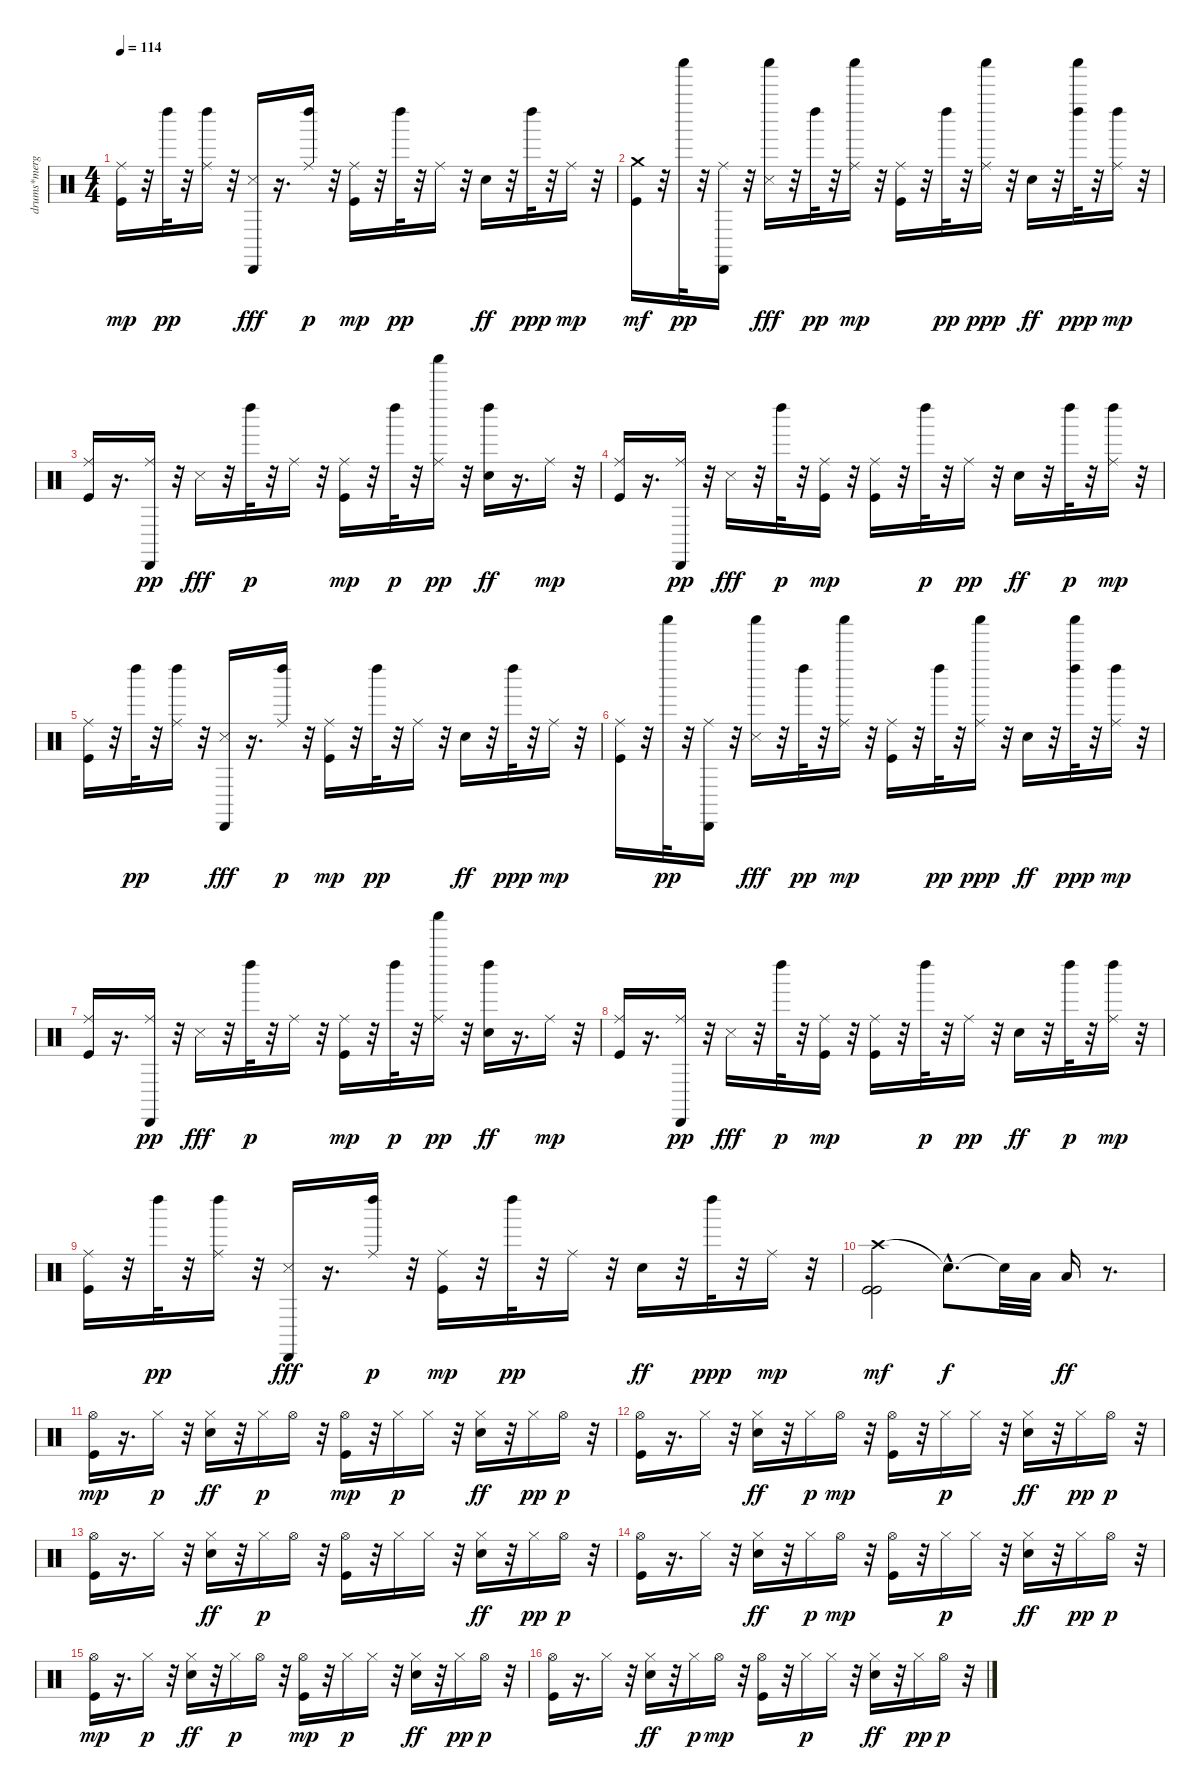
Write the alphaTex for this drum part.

\track ("drums*merged" "drums*merg") {instrument percussion}
\staff {score}
\articulation defaults
\ts (4 4)
\tempo 114
\clef neutral
\ks c
("Kick (hit)" "Ride (middle)").16{dy mp} r.32 "Left Maraca (hit)".32{dy pp} r.32 ("Ride (middle)" "Left Maraca (hit)").16 r.32 ("Cabasa (hit)" "Snare (side stick) 3").16{dy fff} r.16{d} ("Left Maraca (hit)" "Ride (middle)").16{dy p} r.32 ("Ride (middle)" "Kick (hit)").16{dy mp} r.32 "Left Maraca (hit)".32{dy pp} r.32 "Ride (middle)".16 r.32 "Snare (hit) 2".16{dy ff} r.32 "Left Maraca (hit)".32{dy ppp} r.32 "Ride (middle)".16{dy mp} r.32 |
("Crash medium (hit)" "Kick (hit)").16{dy mf} r.32 "Shaker (hit)".32{dy pp} r.32 ("Ride (middle)" "Cabasa (hit)").16 r.32 ("Shaker (hit)" "Snare (side stick) 3").16{dy fff} r.32 "Left Maraca (hit)".32{dy pp} r.32 ("Shaker (hit)" "Ride (middle)").16{dy mp} r.32 ("Ride (middle)" "Kick (hit)").16 r.32 "Left Maraca (hit)".32{dy pp} r.32 ("Ride (middle)" "Shaker (hit)").16{dy ppp} r.32 "Snare (hit) 2".16{dy ff} r.32 ("Left Maraca (hit)" "Shaker (hit)").32{dy ppp} r.32 ("Left Maraca (hit)" "Ride (middle)").16{dy mp} r.32 |
("Ride (middle)" "Kick (hit)").16 r.16{d} ("Ride (middle)" "Cabasa (hit)").16{dy pp} r.32 "Snare (side stick) 3".16{dy fff} r.32 "Left Maraca (hit)".32{dy p} r.32 "Ride (middle)".16 r.32 ("Ride (middle)" "Kick (hit)").16{dy mp} r.32 "Left Maraca (hit)".32{dy p} r.32 ("Ride (middle)" "Shaker (hit)").16{dy pp} r.32 ("Left Maraca (hit)" "Snare (hit) 2").16{dy ff} r.16{d} "Ride (middle)".16{dy mp} r.32 |
("Kick (hit)" "Ride (middle)").16 r.16{d} ("Ride (middle)" "Cabasa (hit)").16{dy pp} r.32 "Snare (side stick) 3".16{dy fff} r.32 "Left Maraca (hit)".32{dy p} r.32 ("Ride (middle)" "Kick (hit)").16{dy mp} r.32 ("Ride (middle)" "Kick (hit)").16 r.32 "Left Maraca (hit)".32{dy p} r.32 "Ride (middle)".16{dy pp} r.32 "Snare (hit) 2".16{dy ff} r.32 "Left Maraca (hit)".32{dy p} r.32 ("Left Maraca (hit)" "Ride (middle)").16{dy mp} r.32 |
("Kick (hit)" "Ride (middle)").16 r.32 "Left Maraca (hit)".32{dy pp} r.32 ("Ride (middle)" "Left Maraca (hit)").16 r.32 ("Cabasa (hit)" "Snare (side stick) 3").16{dy fff} r.16{d} ("Left Maraca (hit)" "Ride (middle)").16{dy p} r.32 ("Ride (middle)" "Kick (hit)").16{dy mp} r.32 "Left Maraca (hit)".32{dy pp} r.32 "Ride (middle)".16 r.32 "Snare (hit) 2".16{dy ff} r.32 "Left Maraca (hit)".32{dy ppp} r.32 "Ride (middle)".16{dy mp} r.32 |
("Ride (middle)" "Kick (hit)").16 r.32 "Shaker (hit)".32{dy pp} r.32 ("Ride (middle)" "Cabasa (hit)").16 r.32 ("Shaker (hit)" "Snare (side stick) 3").16{dy fff} r.32 "Left Maraca (hit)".32{dy pp} r.32 ("Shaker (hit)" "Ride (middle)").16{dy mp} r.32 ("Ride (middle)" "Kick (hit)").16 r.32 "Left Maraca (hit)".32{dy pp} r.32 ("Ride (middle)" "Shaker (hit)").16{dy ppp} r.32 "Snare (hit) 2".16{dy ff} r.32 ("Left Maraca (hit)" "Shaker (hit)").32{dy ppp} r.32 ("Left Maraca (hit)" "Ride (middle)").16{dy mp} r.32 |
("Ride (middle)" "Kick (hit)").16 r.16{d} ("Ride (middle)" "Cabasa (hit)").16{dy pp} r.32 "Snare (side stick) 3".16{dy fff} r.32 "Left Maraca (hit)".32{dy p} r.32 "Ride (middle)".16 r.32 ("Ride (middle)" "Kick (hit)").16{dy mp} r.32 "Left Maraca (hit)".32{dy p} r.32 ("Ride (middle)" "Shaker (hit)").16{dy pp} r.32 ("Left Maraca (hit)" "Snare (hit) 2").16{dy ff} r.16{d} "Ride (middle)".16{dy mp} r.32 |
("Kick (hit)" "Ride (middle)").16 r.16{d} ("Ride (middle)" "Cabasa (hit)").16{dy pp} r.32 "Snare (side stick) 3".16{dy fff} r.32 "Left Maraca (hit)".32{dy p} r.32 ("Ride (middle)" "Kick (hit)").16{dy mp} r.32 ("Ride (middle)" "Kick (hit)").16 r.32 "Left Maraca (hit)".32{dy p} r.32 "Ride (middle)".16{dy pp} r.32 "Snare (hit) 2".16{dy ff} r.32 "Left Maraca (hit)".32{dy p} r.32 ("Left Maraca (hit)" "Ride (middle)").16{dy mp} r.32 |
("Kick (hit)" "Ride (middle)").16 r.32 "Left Maraca (hit)".32{dy pp} r.32 ("Ride (middle)" "Left Maraca (hit)").16 r.32 ("Cabasa (hit)" "Snare (side stick) 3").16{dy fff} r.16{d} ("Left Maraca (hit)" "Ride (middle)").16{dy p} r.32 ("Ride (middle)" "Kick (hit)").16{dy mp} r.32 "Left Maraca (hit)".32{dy pp} r.32 "Ride (middle)".16 r.32 "Snare (hit) 2".16{dy ff} r.32 "Left Maraca (hit)".32{dy ppp} r.32 "Ride (middle)".16{dy mp} r.32 |
("Crash high (hit)" "Kick (hit)" "Kick (hit)").2{dy mf} "Snare (hit)"{hac t}.8{d dy f} "Snare (hit)"{t}.32 "Low Floor Tom (hit)".32 "Low Floor Tom (hit)".16{dy ff} r.8{d} |
("Hi-Hat (open)" "Kick (hit)").16{dy mp} r.16{d} "Hi-Hat (closed)".16{dy p} r.32 ("Hi-Hat (closed)" "Snare (hit) 2").16{dy ff} r.32 "Hi-Hat (closed)".16{dy p} "Hi-Hat (open)".16 r.32 ("Hi-Hat (open)" "Kick (hit)").16{dy mp} r.32 "Hi-Hat (closed)".16{dy p} "Hi-Hat (closed)".16 r.32 ("Hi-Hat (closed)" "Snare (hit) 2").16{dy ff} r.32 "Hi-Hat (closed)".16{dy pp} "Hi-Hat (open)".16{dy p} r.32 |
("Hi-Hat (open)" "Kick (hit)").16 r.16{d} "Hi-Hat (closed)".16 r.32 ("Hi-Hat (closed)" "Snare (hit) 2").16{dy ff} r.32 "Hi-Hat (closed)".16{dy p} "Hi-Hat (open)".16{dy mp} r.32 ("Hi-Hat (open)" "Kick (hit)").16 r.32 "Hi-Hat (closed)".16{dy p} "Hi-Hat (closed)".16 r.32 ("Hi-Hat (closed)" "Snare (hit) 2").16{dy ff} r.32 "Hi-Hat (closed)".16{dy pp} "Hi-Hat (open)".16{dy p} r.32 |
("Hi-Hat (open)" "Kick (hit)").16 r.16{d} "Hi-Hat (closed)".16 r.32 ("Hi-Hat (closed)" "Snare (hit) 2").16{dy ff} r.32 "Hi-Hat (closed)".16{dy p} "Hi-Hat (open)".16 r.32 ("Hi-Hat (open)" "Kick (hit)").16 r.32 "Hi-Hat (closed)".16 "Hi-Hat (closed)".16 r.32 ("Hi-Hat (closed)" "Snare (hit) 2").16{dy ff} r.32 "Hi-Hat (closed)".16{dy pp} "Hi-Hat (open)".16{dy p} r.32 |
("Hi-Hat (open)" "Kick (hit)").16 r.16{d} "Hi-Hat (closed)".16 r.32 ("Hi-Hat (closed)" "Snare (hit) 2").16{dy ff} r.32 "Hi-Hat (closed)".16{dy p} "Hi-Hat (open)".16{dy mp} r.32 ("Hi-Hat (open)" "Kick (hit)").16 r.32 "Hi-Hat (closed)".16{dy p} "Hi-Hat (closed)".16 r.32 ("Hi-Hat (closed)" "Snare (hit) 2").16{dy ff} r.32 "Hi-Hat (closed)".16{dy pp} "Hi-Hat (open)".16{dy p} r.32 |
("Hi-Hat (open)" "Kick (hit)").16{dy mp} r.16{d} "Hi-Hat (closed)".16{dy p} r.32 ("Hi-Hat (closed)" "Snare (hit) 2").16{dy ff} r.32 "Hi-Hat (closed)".16{dy p} "Hi-Hat (open)".16 r.32 ("Hi-Hat (open)" "Kick (hit)").16{dy mp} r.32 "Hi-Hat (closed)".16{dy p} "Hi-Hat (closed)".16 r.32 ("Hi-Hat (closed)" "Snare (hit) 2").16{dy ff} r.32 "Hi-Hat (closed)".16{dy pp} "Hi-Hat (open)".16{dy p} r.32 |
("Hi-Hat (open)" "Kick (hit)").16 r.16{d} "Hi-Hat (closed)".16 r.32 ("Hi-Hat (closed)" "Snare (hit) 2").16{dy ff} r.32 "Hi-Hat (closed)".16{dy p} "Hi-Hat (open)".16{dy mp} r.32 ("Hi-Hat (open)" "Kick (hit)").16 r.32 "Hi-Hat (closed)".16{dy p} "Hi-Hat (closed)".16 r.32 ("Hi-Hat (closed)" "Snare (hit) 2").16{dy ff} r.32 "Hi-Hat (closed)".16{dy pp} "Hi-Hat (open)".16{dy p} r.32
